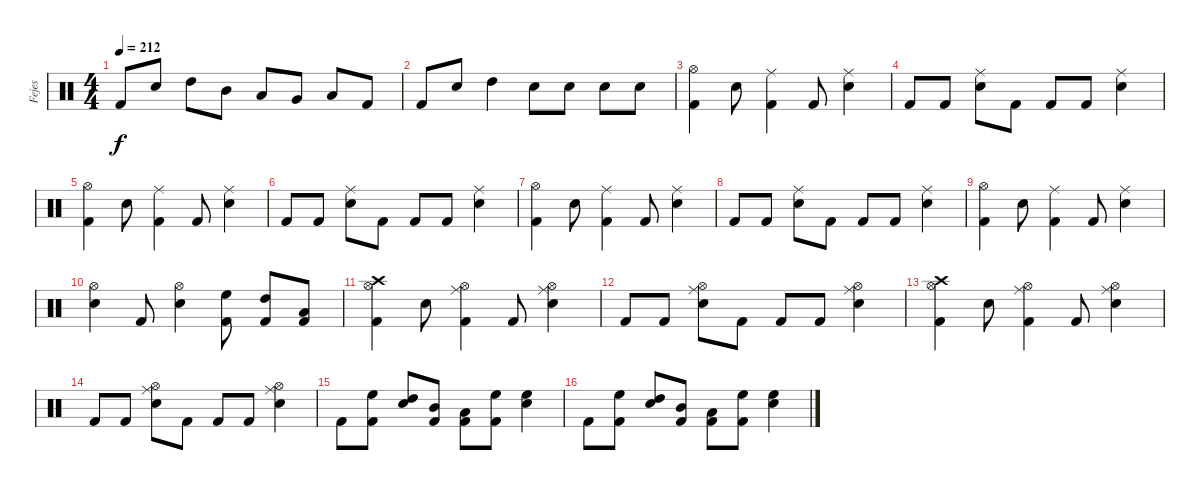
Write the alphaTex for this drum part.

\track ("Fejes" "Fejes") {instrument percussion}
\staff {score}
\articulation defaults
\ts (4 4)
\tempo 212
\clef neutral
\ks c "Kick (hit) 2".8{dy f} "Snare (hit) 2".8 "High Tom (hit)".8 "Mid Tom (hit)".8 "Low Tom (hit)".8 "Very Low Tom (hit)".8 "Low Floor Tom (hit)".8 "Kick (hit) 2".8
|
"Kick (hit) 2".8 "Snare (hit) 2".8 "High Tom (hit)".4 "Snare (hit) 2".8 "Snare (hit) 2".8 "Snare (hit) 2".8 "Snare (hit) 2".8 |
("Hi-Hat (open)" "Kick (hit) 2").4 "Snare (hit) 2".8 ("Ride (middle)" "Kick (hit) 2").4 "Kick (hit) 2".8 ("Ride (middle)" "Snare (hit) 2").4 |
"Kick (hit) 2".8 "Kick (hit) 2".8 ("Ride (middle)" "Snare (hit) 2").8 "Kick (hit) 2".8 "Kick (hit) 2".8 "Kick (hit) 2".8 ("Ride (middle)" "Snare (hit) 2").4 |
("Hi-Hat (open)" "Kick (hit) 2").4 "Snare (hit) 2".8 ("Ride (middle)" "Kick (hit) 2").4 "Kick (hit) 2".8 ("Ride (middle)" "Snare (hit) 2").4 |
"Kick (hit) 2".8 "Kick (hit) 2".8 ("Ride (middle)" "Snare (hit) 2").8 "Kick (hit) 2".8 "Kick (hit) 2".8 "Kick (hit) 2".8 ("Ride (middle)" "Snare (hit) 2").4 |
("Hi-Hat (open)" "Kick (hit) 2").4 "Snare (hit) 2".8 ("Ride (middle)" "Kick (hit) 2").4 "Kick (hit) 2".8 ("Ride (middle)" "Snare (hit) 2").4 |
"Kick (hit) 2".8 "Kick (hit) 2".8 ("Ride (middle)" "Snare (hit) 2").8 "Kick (hit) 2".8 "Kick (hit) 2".8 "Kick (hit) 2".8 ("Ride (middle)" "Snare (hit) 2").4 |
("Hi-Hat (open)" "Kick (hit) 2").4 "Snare (hit) 2".8 ("Ride (middle)" "Kick (hit) 2").4 "Kick (hit) 2".8 ("Ride (middle)" "Snare (hit) 2").4 |
("Hi-Hat (open)" "Snare (hit) 2").4 "Kick (hit) 2".8 ("Hi-Hat (open)" "Snare (hit) 2").4 ("High Floor Tom (hit)" "Kick (hit) 2").8 ("High Tom (hit)" "Kick (hit) 2").8 ("Low Tom (hit)" "Kick (hit) 2").8 |
("Crash high (hit)" "Hi-Hat (open)" "Kick (hit) 2").4 "Snare (hit) 2".8 ("Ride (middle)" "Hi-Hat (open)" "Kick (hit) 2").4 "Kick (hit) 2".8 ("Ride (middle)" "Hi-Hat (open)" "Snare (hit) 2").4 |
"Kick (hit) 2".8 "Kick (hit) 2".8 ("Ride (middle)" "Hi-Hat (open)" "Snare (hit) 2").8 "Kick (hit) 2".8 "Kick (hit) 2".8 "Kick (hit) 2".8 ("Ride (middle)" "Hi-Hat (open)" "Snare (hit) 2").4 |
("Crash high (hit)" "Hi-Hat (open)" "Kick (hit) 2").4 "Snare (hit) 2".8 ("Ride (middle)" "Hi-Hat (open)" "Kick (hit) 2").4 "Kick (hit) 2".8 ("Ride (middle)" "Hi-Hat (open)" "Snare (hit) 2").4 |
"Kick (hit) 2".8 "Kick (hit) 2".8 ("Ride (middle)" "Hi-Hat (open)" "Snare (hit) 2").8 "Kick (hit) 2".8 "Kick (hit) 2".8 "Kick (hit) 2".8 ("Ride (middle)" "Hi-Hat (open)" "Snare (hit) 2").4 |
"Kick (hit) 2".8 ("High Floor Tom (hit)" "Kick (hit) 2").8 ("High Tom (hit)" "Snare (hit) 2").8 ("Mid Tom (hit)" "Kick (hit) 2").8 ("Low Tom (hit)" "Kick (hit) 2").8 ("High Floor Tom (hit)" "Kick (hit) 2").8 ("High Floor Tom (hit)" "Snare (hit) 2").4 |
"Kick (hit) 2".8 ("High Floor Tom (hit)" "Kick (hit) 2").8 ("High Tom (hit)" "Snare (hit) 2").8 ("Mid Tom (hit)" "Kick (hit) 2").8 ("Low Tom (hit)" "Kick (hit) 2").8 ("High Floor Tom (hit)" "Kick (hit) 2").8 ("High Floor Tom (hit)" "Snare (hit) 2").4
